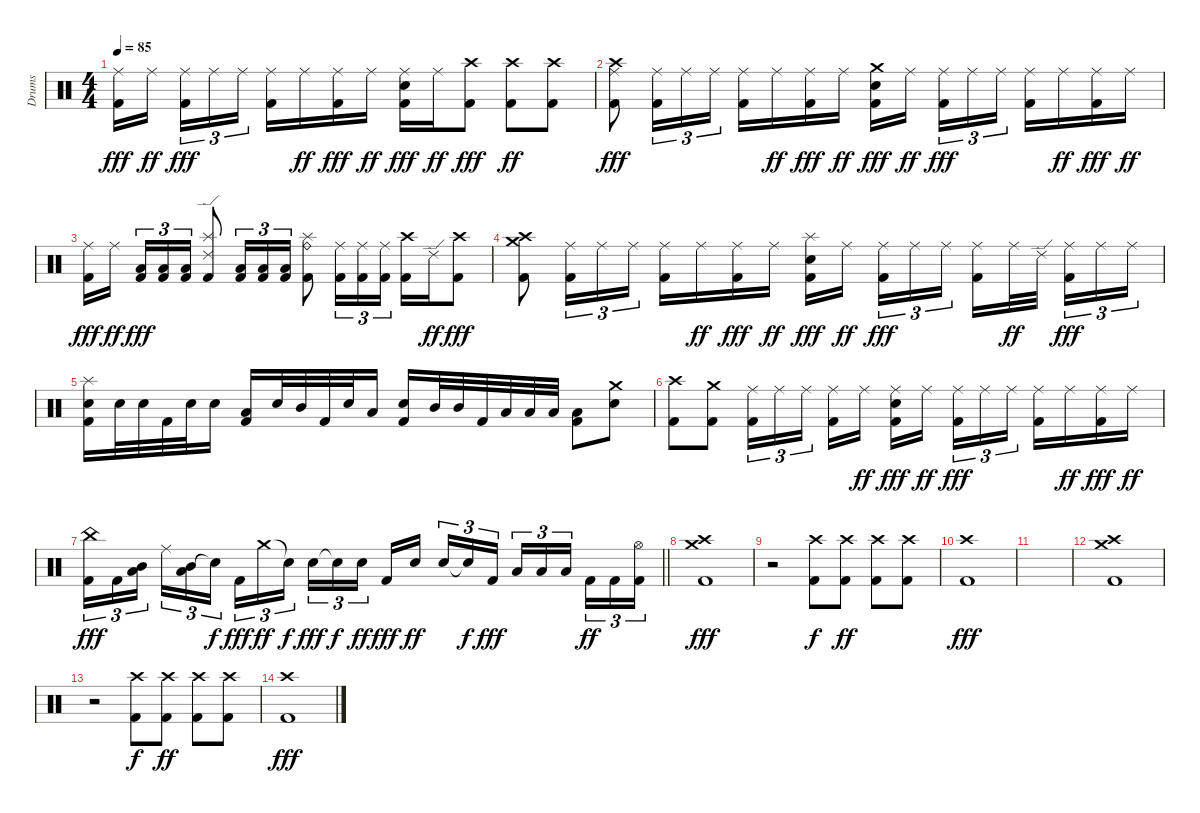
\track ("Drums" "Drums") {instrument percussion}
\staff {score}
\articulation defaults
\ts (4 4)
\tempo 85
\clef neutral
\ks c
("Ride (middle)" "Kick (hit) 2").16{dy fff} "Ride (middle)".16{dy ff beam splitsecondary} ("Ride (middle)" "Kick (hit) 2").16{tu (3 2) dy fff} "Ride (middle)".16{tu (3 2)} "Ride (middle)".16{tu (3 2)} ("Ride (middle)" "Kick (hit) 2").16 "Ride (middle)".16{dy ff} ("Ride (middle)" "Kick (hit) 2").16{dy fff} "Ride (middle)".16{dy ff} ("Ride (middle)" "Snare (hit) 2" "Kick (hit) 2").16{dy fff} "Ride (middle)".16{dy ff} ("Crash high (hit)" "Kick (hit) 2").8{dy fff} ("Crash high (hit)" "Kick (hit) 2").8{dy ff} ("Crash high (hit)" "Kick (hit) 2").8 |
("Crash high (hit)" "Ride (middle)" "Kick (hit) 2").8{dy fff} ("Ride (middle)" "Kick (hit) 2").16{tu (3 2)} "Ride (middle)".16{tu (3 2)} "Ride (middle)".16{tu (3 2)} ("Ride (middle)" "Kick (hit) 2").16 "Ride (middle)".16{dy ff} ("Ride (middle)" "Kick (hit) 2").16{dy fff} "Ride (middle)".16{dy ff} ("Crash medium (hit)" "Snare (hit) 2" "Kick (hit) 2").16{dy fff} "Ride (middle)".16{dy ff beam splitsecondary} ("Ride (middle)" "Kick (hit) 2").16{tu (3 2) dy fff} "Ride (middle)".16{tu (3 2)} "Ride (middle)".16{tu (3 2)} ("Ride (middle)" "Kick (hit) 2").16 "Ride (middle)".16{dy ff} ("Ride (middle)" "Kick (hit) 2").16{dy fff} "Ride (middle)".16{dy ff} |
("Ride (middle)" "Kick (hit) 2").16{dy fff} "Ride (middle)".16{dy ff beam splitsecondary} ("Low Tom (hit)" "Kick (hit) 2").16{tu (3 2) dy fff} ("Low Tom (hit)" "Kick (hit) 2").16{tu (3 2)} ("Low Tom (hit)" "Kick (hit) 2").16{tu (3 2)} ("Splash (hit)" "Ride (edge) 2" "Kick (hit) 2").8 ("Low Tom (hit)" "Kick (hit) 2").16{tu (3 2)} ("Low Tom (hit)" "Kick (hit) 2").16{tu (3 2)} ("Low Tom (hit)" "Kick (hit) 2").16{tu (3 2)} ("Splash (hit)" "Ride (bell)" "Kick (hit) 2").8 ("Ride (middle)" "Kick (hit) 2").16{tu (3 2)} ("Ride (middle)" "Kick (hit) 2").16{tu (3 2)} ("Ride (middle)" "Kick (hit) 2").16{tu (3 2)} ("Crash high (hit)" "Kick (hit) 2").16 "Ride (edge) 2".16{dy ff} ("Crash high (hit)" "Kick (hit) 2").8{dy fff} |
("Crash high (hit)" "Crash medium (hit)" "Kick (hit) 2").8 ("Ride (middle)" "Kick (hit) 2").16{tu (3 2)} "Ride (middle)".16{tu (3 2)} "Ride (middle)".16{tu (3 2)} ("Ride (middle)" "Kick (hit) 2").16 "Ride (middle)".16{dy ff} ("Ride (middle)" "Kick (hit) 2").16{dy fff} "Ride (middle)".16{dy ff} ("Splash (hit)" "Snare (hit) 2" "Kick (hit) 2").16{dy fff} "Ride (middle)".16{dy ff beam splitsecondary} ("Ride (middle)" "Kick (hit) 2").16{tu (3 2) dy fff} "Ride (middle)".16{tu (3 2)} "Ride (middle)".16{tu (3 2)} ("Ride (middle)" "Kick (hit) 2").16 "Ride (middle)".32{dy ff} "Ride (edge) 2".32{beam splitsecondary} ("Ride (middle)" "Kick (hit) 2").16{tu (3 2) dy fff} "Ride (middle)".16{tu (3 2)} "Ride (middle)".16{tu (3 2)} |
("Splash (hit)" "Snare (hit) 2" "Kick (hit) 2").16 "Snare (hit) 2".32 "Snare (hit) 2".32 "Kick (hit) 2".32 "Snare (hit) 2".32 "Snare (hit) 2".16 ("Low Tom (hit)" "Kick (hit) 2").16 "Snare (hit) 2".32 "Mid Tom (hit)".32 "Kick (hit) 2".32 "Snare (hit) 2".32 "Low Tom (hit)".16 ("Snare (hit) 2" "Kick (hit) 2").16 "Mid Tom (hit)".32 "Mid Tom (hit)".32 "Kick (hit) 2".32 "Low Tom (hit)".32 "Low Tom (hit)".32 "Low Tom (hit)".32 ("Low Tom (hit)" "Kick (hit) 2").8 ("Crash medium (hit)" "Snare (hit) 2").8 |
("Crash high (hit)" "Kick (hit) 2").8 ("Crash medium (hit)" "Kick (hit) 2").8 ("Ride (middle)" "Kick (hit) 2").16{tu (3 2)} "Ride (middle)".16{tu (3 2)} "Ride (middle)".16{tu (3 2) beam splitsecondary} ("Ride (middle)" "Kick (hit) 2").16 "Ride (middle)".16{dy ff} ("Ride (middle)" "Snare (hit) 2" "Kick (hit) 2").16{dy fff} "Ride (middle)".16{dy ff beam splitsecondary} ("Ride (middle)" "Kick (hit) 2").16{tu (3 2) dy fff} "Ride (middle)".16{tu (3 2)} "Ride (middle)".16{tu (3 2)} ("Ride (middle)" "Kick (hit) 2").16 "Ride (middle)".16{dy ff} ("Ride (middle)" "Kick (hit) 2").16{dy fff} "Ride (middle)".16{dy ff} |
\barLineRight lightlight
("China (hit)" "Kick (hit) 2").16{tu (3 2) dy fff} "Kick (hit) 2".16{tu (3 2)} ("Low Tom (hit)" "Mid Tom (hit)").16{tu (3 2) beam splitsecondary} "Ride (middle)".16{tu (3 2)} ("Low Tom (hit)" "Mid Tom (hit)").16{tu (3 2)} "Snare (hit)"{t}.16{tu (3 2) dy f} "Kick (hit) 2".16{tu (3 2) dy fff} "Crash medium (hit)".16{tu (3 2) dy ff} "Snare (hit)"{t}.16{tu (3 2) dy f beam splitsecondary} "Snare (hit) 2".16{tu (3 2) dy fff} "Snare (hit)"{t}.16{tu (3 2) dy f} "Snare (hit) 2".16{tu (3 2) dy ff} "Kick (hit) 2".16{dy fff} "Snare (hit) 2".16{dy ff beam splitsecondary} "Snare (hit) 2".16{tu (3 2)} "Snare (hit)"{t}.16{tu (3 2) dy f} "Kick (hit) 2".16{tu (3 2) dy fff} "Low Tom (hit)".16{tu (3 2)} "Low Tom (hit)".16{tu (3 2)} "Low Tom (hit)".16{tu (3 2) beam splitsecondary} "Kick (hit) 2".16{tu (3 2) dy ff} "Kick (hit) 2".16{tu (3 2)} ("Hi-Hat (open)" "Kick (hit) 2").16{tu (3 2)} |
\section ("" "")
("Crash high (hit)" "Crash medium (hit)" "Kick (hit) 2").1{dy fff} |
r.2 ("Crash high (hit)" "Kick (hit) 2").8{dy f} ("Crash high (hit)" "Kick (hit) 2").8{dy ff} ("Crash high (hit)" "Kick (hit) 2").8 ("Crash high (hit)" "Kick (hit) 2").8 |
("Crash high (hit)" "Kick (hit) 2").1{dy fff} |
|
("Crash high (hit)" "Crash medium (hit)" "Kick (hit) 2").1 |
r.2 ("Crash high (hit)" "Kick (hit) 2").8{dy f} ("Crash high (hit)" "Kick (hit) 2").8{dy ff} ("Crash high (hit)" "Kick (hit) 2").8 ("Crash high (hit)" "Kick (hit) 2").8 |
("Crash high (hit)" "Kick (hit) 2").1{dy fff}
